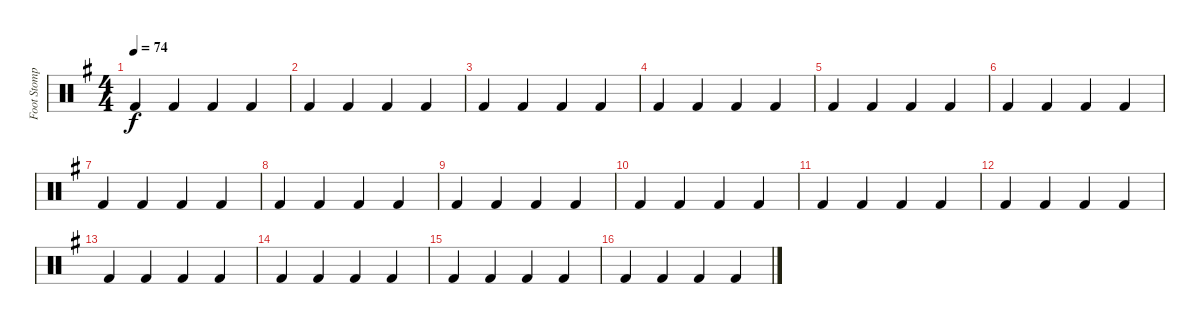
\track ("Foot Stomp" "Foot Stomp") {instrument percussion}
\staff {score}
\articulation defaults
\ts (4 4)
\tempo 74
\clef neutral
\ks g "Kick (hit) 2".4{dy f} "Kick (hit) 2".4 "Kick (hit) 2".4 "Kick (hit) 2".4
|
"Kick (hit) 2".4 "Kick (hit) 2".4 "Kick (hit) 2".4 "Kick (hit) 2".4 |
"Kick (hit) 2".4 "Kick (hit) 2".4 "Kick (hit) 2".4 "Kick (hit) 2".4 |
"Kick (hit) 2".4 "Kick (hit) 2".4 "Kick (hit) 2".4 "Kick (hit) 2".4 |
"Kick (hit) 2".4 "Kick (hit) 2".4 "Kick (hit) 2".4 "Kick (hit) 2".4 |
"Kick (hit) 2".4 "Kick (hit) 2".4 "Kick (hit) 2".4 "Kick (hit) 2".4 |
"Kick (hit) 2".4 "Kick (hit) 2".4 "Kick (hit) 2".4 "Kick (hit) 2".4 |
"Kick (hit) 2".4 "Kick (hit) 2".4 "Kick (hit) 2".4 "Kick (hit) 2".4 |
"Kick (hit) 2".4 "Kick (hit) 2".4 "Kick (hit) 2".4 "Kick (hit) 2".4 |
"Kick (hit) 2".4 "Kick (hit) 2".4 "Kick (hit) 2".4 "Kick (hit) 2".4 |
"Kick (hit) 2".4 "Kick (hit) 2".4 "Kick (hit) 2".4 "Kick (hit) 2".4 |
"Kick (hit) 2".4 "Kick (hit) 2".4 "Kick (hit) 2".4 "Kick (hit) 2".4 |
"Kick (hit) 2".4 "Kick (hit) 2".4 "Kick (hit) 2".4 "Kick (hit) 2".4 |
"Kick (hit) 2".4 "Kick (hit) 2".4 "Kick (hit) 2".4 "Kick (hit) 2".4 |
"Kick (hit) 2".4 "Kick (hit) 2".4 "Kick (hit) 2".4 "Kick (hit) 2".4 |
"Kick (hit) 2".4 "Kick (hit) 2".4 "Kick (hit) 2".4 "Kick (hit) 2".4
